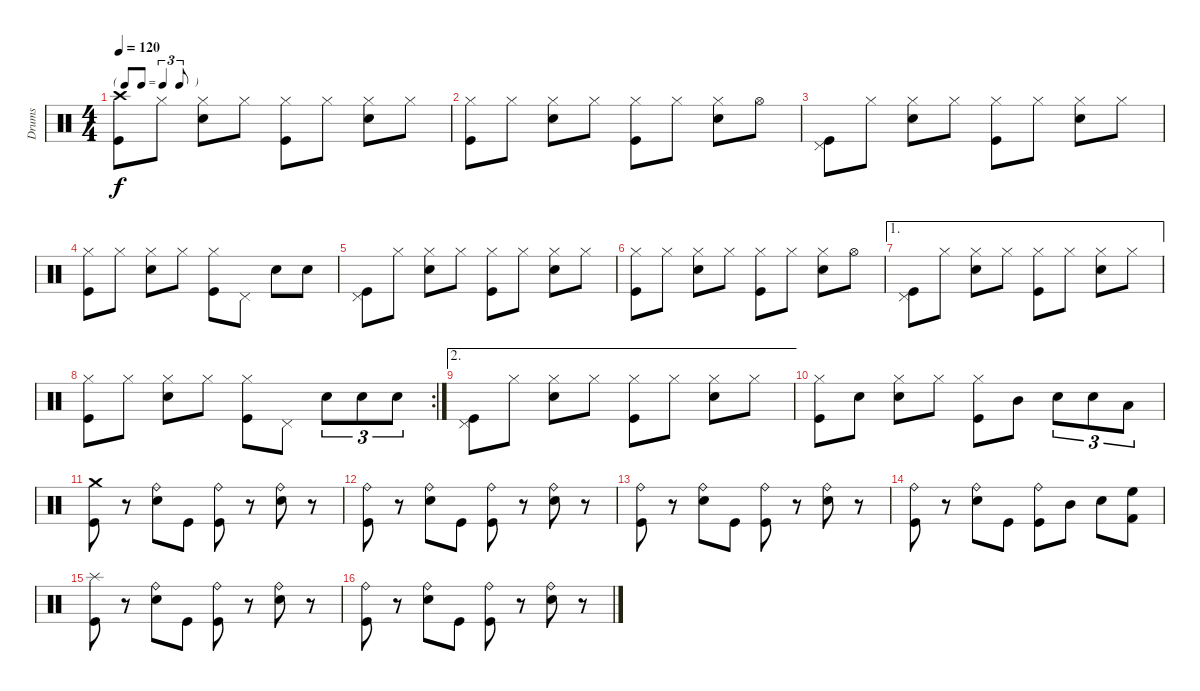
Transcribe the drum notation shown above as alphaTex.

\track ("Drums" "Drums") {instrument percussion}
\staff {score}
\articulation defaults
\ts (4 4)
\tf triplet8th
\tempo 120
\clef neutral
\ks c
("Crash high (hit)" "Kick (hit)").8{dy f} "Hi-Hat (closed)".8 ("Hi-Hat (closed)" "Snare (hit) 2").8 "Hi-Hat (closed)".8 ("Hi-Hat (closed)" "Kick (hit)").8 "Hi-Hat (closed)".8 ("Hi-Hat (closed)" "Snare (hit) 2").8 "Hi-Hat (closed)".8 |
("Hi-Hat (closed)" "Kick (hit)").8 "Hi-Hat (closed)".8 ("Hi-Hat (closed)" "Snare (hit) 2").8 "Hi-Hat (closed)".8 ("Hi-Hat (closed)" "Kick (hit)").8 "Hi-Hat (closed)".8 ("Hi-Hat (closed)" "Snare (hit) 2").8 "Hi-Hat (open)".8 |
("Pedal Hi-Hat (hit)" "Kick (hit)").8 "Hi-Hat (closed)".8 ("Hi-Hat (closed)" "Snare (hit) 2").8 "Hi-Hat (closed)".8 ("Hi-Hat (closed)" "Kick (hit)").8 "Hi-Hat (closed)".8 ("Hi-Hat (closed)" "Snare (hit) 2").8 "Hi-Hat (closed)".8 |
("Hi-Hat (closed)" "Kick (hit)").8 "Hi-Hat (closed)".8 ("Hi-Hat (closed)" "Snare (hit) 2").8 "Hi-Hat (closed)".8 ("Hi-Hat (closed)" "Kick (hit)").8 "Pedal Hi-Hat (hit)".8 "Snare (hit) 2".8 "Snare (hit) 2".8 |
("Pedal Hi-Hat (hit)" "Kick (hit)").8 "Hi-Hat (closed)".8 ("Hi-Hat (closed)" "Snare (hit) 2").8 "Hi-Hat (closed)".8 ("Hi-Hat (closed)" "Kick (hit)").8 "Hi-Hat (closed)".8 ("Hi-Hat (closed)" "Snare (hit) 2").8 "Hi-Hat (closed)".8 |
("Hi-Hat (closed)" "Kick (hit)").8 "Hi-Hat (closed)".8 ("Hi-Hat (closed)" "Snare (hit) 2").8 "Hi-Hat (closed)".8 ("Hi-Hat (closed)" "Kick (hit)").8 "Hi-Hat (closed)".8 ("Hi-Hat (closed)" "Snare (hit) 2").8 "Hi-Hat (open)".8 |
\ae 1
("Pedal Hi-Hat (hit)" "Kick (hit)").8 "Hi-Hat (closed)".8 ("Hi-Hat (closed)" "Snare (hit) 2").8 "Hi-Hat (closed)".8 ("Hi-Hat (closed)" "Kick (hit)").8 "Hi-Hat (closed)".8 ("Hi-Hat (closed)" "Snare (hit) 2").8 "Hi-Hat (closed)".8 |
\rc 2
("Hi-Hat (closed)" "Kick (hit)").8 "Hi-Hat (closed)".8 ("Hi-Hat (closed)" "Snare (hit) 2").8 "Hi-Hat (closed)".8 ("Hi-Hat (closed)" "Kick (hit)").8 "Pedal Hi-Hat (hit)".8 "Snare (hit) 2".8{tu (3 2)} "Snare (hit) 2".8{tu (3 2)} "Snare (hit) 2".8{tu (3 2)} |
\ae 2
("Pedal Hi-Hat (hit)" "Kick (hit)").8 "Hi-Hat (closed)".8 ("Hi-Hat (closed)" "Snare (hit) 2").8 "Hi-Hat (closed)".8 ("Hi-Hat (closed)" "Kick (hit)").8 "Hi-Hat (closed)".8 ("Hi-Hat (closed)" "Snare (hit) 2").8 "Hi-Hat (closed)".8 |
("Hi-Hat (closed)" "Kick (hit)").8 "Snare (hit) 2".8 ("Hi-Hat (closed)" "Snare (hit) 2").8 "Hi-Hat (closed)".8 ("Hi-Hat (closed)" "Kick (hit)").8 "Mid Tom (hit)".8 "Snare (hit) 2".8{tu (3 2)} "Snare (hit) 2".8{tu (3 2)} "Low Tom (hit)".8{tu (3 2)} |
("Crash medium (hit)" "Kick (hit)").8 r.8 ("Ride (bell)" "Snare (hit) 2").8 "Kick (hit)".8 ("Ride (bell)" "Kick (hit)").8 r.8 ("Ride (bell)" "Snare (hit) 2").8 r.8 |
("Ride (bell)" "Kick (hit)").8 r.8 ("Ride (bell)" "Snare (hit) 2").8 "Kick (hit)".8 ("Ride (bell)" "Kick (hit)").8 r.8 ("Ride (bell)" "Snare (hit) 2").8 r.8 |
("Ride (bell)" "Kick (hit)").8 r.8 ("Ride (bell)" "Snare (hit) 2").8 "Kick (hit)".8 ("Ride (bell)" "Kick (hit)").8 r.8 ("Ride (bell)" "Snare (hit) 2").8 r.8 |
("Ride (bell)" "Kick (hit)").8 r.8 ("Ride (bell)" "Snare (hit) 2").8 "Kick (hit)".8 ("Ride (bell)" "Kick (hit)").8 "Mid Tom (hit)".8 "Snare (hit) 2".8 ("High Floor Tom (hit)" "Kick (hit) 2").8 |
("Splash (hit)" "Kick (hit)").8 r.8 ("Ride (bell)" "Snare (hit) 2").8 "Kick (hit)".8 ("Ride (bell)" "Kick (hit)").8 r.8 ("Ride (bell)" "Snare (hit) 2").8 r.8 |
("Ride (bell)" "Kick (hit)").8 r.8 ("Ride (bell)" "Snare (hit) 2").8 "Kick (hit)".8 ("Ride (bell)" "Kick (hit)").8 r.8 ("Ride (bell)" "Snare (hit) 2").8 r.8
